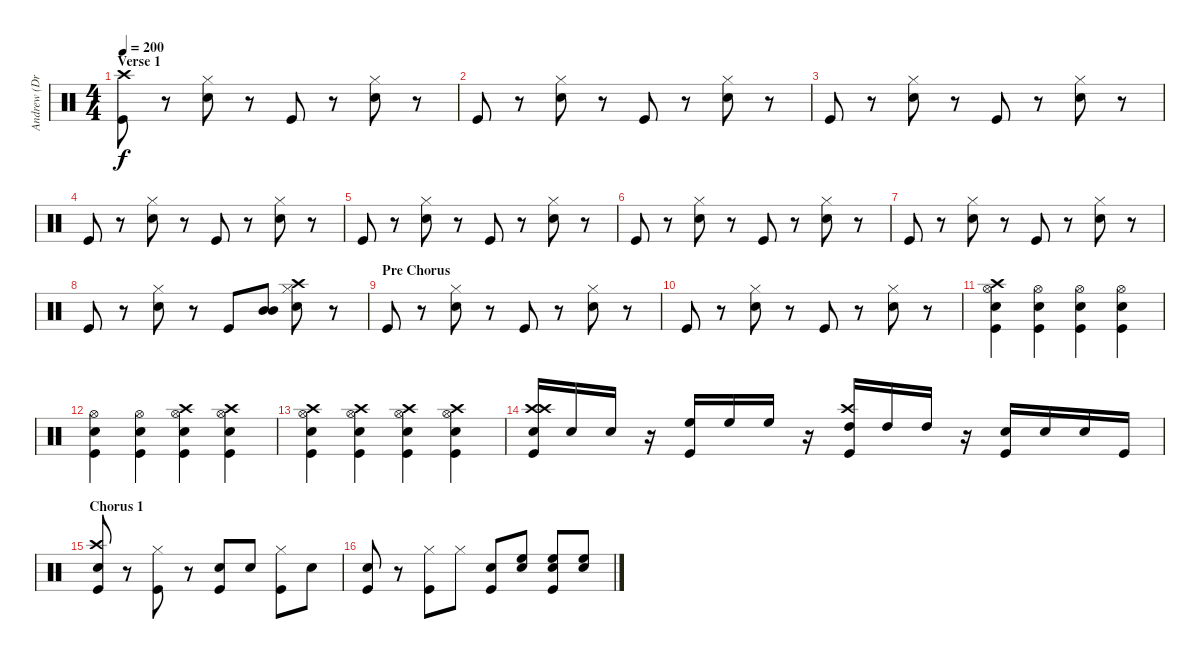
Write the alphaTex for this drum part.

\track ("Andrew (Drums)" "Andrew (Dr") {instrument percussion}
\staff {score}
\articulation defaults
\ts (4 4)
\section ("" "Verse 1")
\tempo 200
\clef neutral
\ks c
("Kick (hit)" "Crash high (hit)").8{dy f} r.8 ("Snare (hit) 2" "Hi-Hat (closed)").8 r.8 "Kick (hit)".8 r.8 ("Snare (hit) 2" "Hi-Hat (closed)").8 r.8 |
"Kick (hit)".8 r.8 ("Snare (hit) 2" "Hi-Hat (closed)").8 r.8 "Kick (hit)".8 r.8 ("Snare (hit) 2" "Hi-Hat (closed)").8 r.8 |
"Kick (hit)".8 r.8 ("Snare (hit) 2" "Hi-Hat (closed)").8 r.8 "Kick (hit)".8 r.8 ("Snare (hit) 2" "Hi-Hat (closed)").8 r.8 |
"Kick (hit)".8 r.8 ("Snare (hit) 2" "Hi-Hat (closed)").8 r.8 "Kick (hit)".8 r.8 ("Snare (hit) 2" "Hi-Hat (closed)").8 r.8 |
"Kick (hit)".8 r.8 ("Snare (hit) 2" "Hi-Hat (closed)").8 r.8 "Kick (hit)".8 r.8 ("Snare (hit) 2" "Hi-Hat (closed)").8 r.8 |
"Kick (hit)".8 r.8 ("Snare (hit) 2" "Hi-Hat (closed)").8 r.8 "Kick (hit)".8 r.8 ("Snare (hit) 2" "Hi-Hat (closed)").8 r.8 |
"Kick (hit)".8 r.8 ("Snare (hit) 2" "Hi-Hat (closed)").8 r.8 "Kick (hit)".8 r.8 ("Snare (hit) 2" "Hi-Hat (closed)").8 r.8 |
"Kick (hit)".8 r.8 ("Snare (hit) 2" "Hi-Hat (closed)").8 r.8 "Kick (hit)".8 ("Mid Tom (hit)" "Mid Tom (hit)").8 ("Snare (hit) 2" "Hi-Hat (closed)" "Crash high (hit)").8 r.8 |
\section ("" "Pre Chorus")
"Kick (hit)".8 r.8 ("Snare (hit) 2" "Hi-Hat (closed)").8 r.8 "Kick (hit)".8 r.8 ("Snare (hit) 2" "Hi-Hat (closed)").8 r.8 |
"Kick (hit)".8 r.8 ("Snare (hit) 2" "Hi-Hat (closed)").8 r.8 "Kick (hit)".8 r.8 ("Snare (hit) 2" "Hi-Hat (closed)").8 r.8 |
("Kick (hit)" "Snare (hit) 2" "Hi-Hat (open)" "Crash high (hit)").4 ("Kick (hit)" "Snare (hit) 2" "Hi-Hat (open)").4 ("Kick (hit)" "Snare (hit) 2" "Hi-Hat (open)").4 ("Kick (hit)" "Snare (hit) 2" "Hi-Hat (open)").4 |
("Kick (hit)" "Snare (hit) 2" "Hi-Hat (open)").4 ("Kick (hit)" "Snare (hit) 2" "Hi-Hat (open)").4 ("Kick (hit)" "Snare (hit) 2" "Hi-Hat (open)" "Crash high (hit)").4 ("Kick (hit)" "Snare (hit) 2" "Hi-Hat (open)" "Crash high (hit)").4 |
("Kick (hit)" "Snare (hit) 2" "Hi-Hat (open)" "Crash high (hit)").4 ("Kick (hit)" "Snare (hit) 2" "Hi-Hat (open)" "Crash high (hit)").4 ("Kick (hit)" "Snare (hit) 2" "Hi-Hat (open)" "Crash high (hit)").4 ("Kick (hit)" "Snare (hit) 2" "Hi-Hat (open)" "Crash high (hit)").4 |
("Kick (hit)" "Snare (hit) 2" "Crash high (hit)" "Crash high (hit)").16 "Snare (hit) 2".16 "Snare (hit) 2".16 r.16 ("Kick (hit)" "High Floor Tom (hit)").16 "High Floor Tom (hit)".16 "High Floor Tom (hit)".16 r.16 ("Kick (hit)" "High Tom (hit)" "Crash high (hit)").16 "High Tom (hit)".16 "High Tom (hit)".16 r.16 ("Kick (hit)" "Snare (hit) 2").16 "Snare (hit) 2".16 "Snare (hit) 2".16 "Kick (hit)".16 |
\section ("" "Chorus 1")
("Kick (hit)" "Snare (hit) 2" "Crash high (hit)").8 r.8 ("Kick (hit)" "Hi-Hat (closed)").8 r.8 ("Kick (hit)" "Snare (hit) 2").8 "Snare (hit) 2".8 ("Kick (hit)" "Hi-Hat (closed)").8 "Snare (hit) 2".8 |
("Kick (hit)" "Snare (hit) 2").8 r.8 ("Kick (hit)" "Hi-Hat (closed)").8 "Hi-Hat (closed)".8 ("Kick (hit)" "Snare (hit) 2").8 ("Snare (hit) 2" "High Floor Tom (hit)").8 ("Kick (hit)" "Snare (hit) 2" "High Floor Tom (hit)").8 ("Snare (hit) 2" "High Floor Tom (hit)").8
